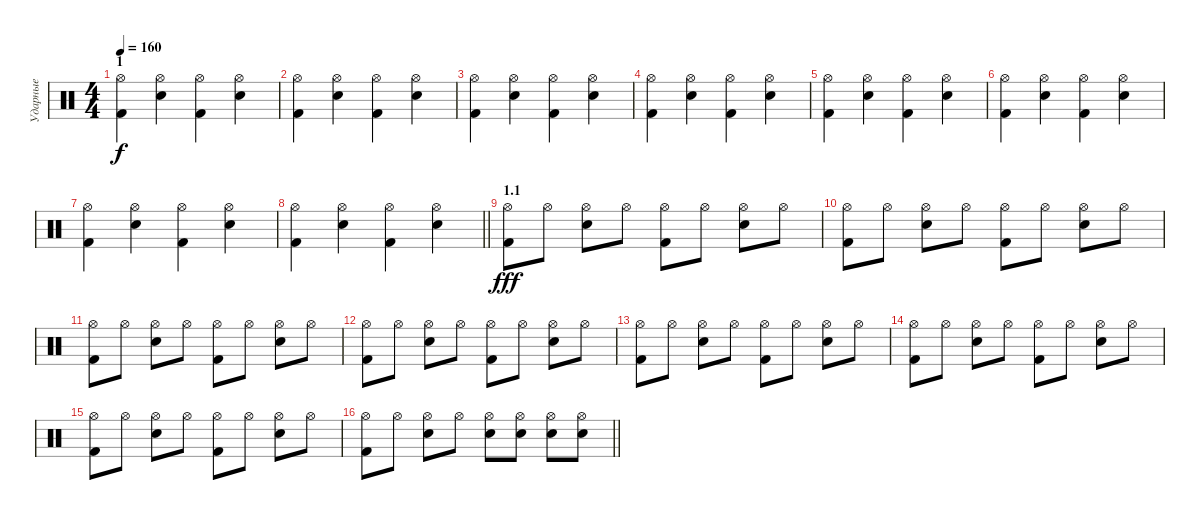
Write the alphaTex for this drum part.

\track ("Ударные" "Ударные") {instrument percussion}
\staff {score}
\articulation defaults
\ts (4 4)
\section ("" "1")
\tempo 160
\clef neutral
\ks c
("Hi-Hat (open)" "Kick (hit) 2").4{dy f} ("Hi-Hat (open)" "Electric Snare (hit)").4 ("Hi-Hat (open)" "Kick (hit) 2").4 ("Hi-Hat (open)" "Electric Snare (hit)").4 |
("Hi-Hat (open)" "Kick (hit) 2").4 ("Hi-Hat (open)" "Electric Snare (hit)").4 ("Hi-Hat (open)" "Kick (hit) 2").4 ("Hi-Hat (open)" "Electric Snare (hit)").4 |
("Hi-Hat (open)" "Kick (hit) 2").4 ("Hi-Hat (open)" "Electric Snare (hit)").4 ("Hi-Hat (open)" "Kick (hit) 2").4 ("Hi-Hat (open)" "Electric Snare (hit)").4 |
("Hi-Hat (open)" "Kick (hit) 2").4 ("Hi-Hat (open)" "Electric Snare (hit)").4 ("Hi-Hat (open)" "Kick (hit) 2").4 ("Hi-Hat (open)" "Electric Snare (hit)").4 |
("Hi-Hat (open)" "Kick (hit) 2").4 ("Hi-Hat (open)" "Electric Snare (hit)").4 ("Hi-Hat (open)" "Kick (hit) 2").4 ("Hi-Hat (open)" "Electric Snare (hit)").4 |
("Hi-Hat (open)" "Kick (hit) 2").4 ("Hi-Hat (open)" "Electric Snare (hit)").4 ("Hi-Hat (open)" "Kick (hit) 2").4 ("Hi-Hat (open)" "Electric Snare (hit)").4 |
("Hi-Hat (open)" "Kick (hit) 2").4 ("Hi-Hat (open)" "Electric Snare (hit)").4 ("Hi-Hat (open)" "Kick (hit) 2").4 ("Hi-Hat (open)" "Electric Snare (hit)").4 |
\barLineRight lightlight
("Hi-Hat (open)" "Kick (hit) 2").4 ("Hi-Hat (open)" "Electric Snare (hit)").4 ("Hi-Hat (open)" "Kick (hit) 2").4 ("Hi-Hat (open)" "Electric Snare (hit)").4 |
\section ("" "1.1")
("Hi-Hat (open)" "Kick (hit) 2").8{dy fff} "Hi-Hat (open)".8 ("Hi-Hat (open)" "Electric Snare (hit)").8 "Hi-Hat (open)".8 ("Hi-Hat (open)" "Kick (hit) 2").8 "Hi-Hat (open)".8 ("Hi-Hat (open)" "Electric Snare (hit)").8 "Hi-Hat (open)".8 |
("Hi-Hat (open)" "Kick (hit) 2").8 "Hi-Hat (open)".8 ("Hi-Hat (open)" "Electric Snare (hit)").8 "Hi-Hat (open)".8 ("Hi-Hat (open)" "Kick (hit) 2").8 "Hi-Hat (open)".8 ("Hi-Hat (open)" "Electric Snare (hit)").8 "Hi-Hat (open)".8 |
("Hi-Hat (open)" "Kick (hit) 2").8 "Hi-Hat (open)".8 ("Hi-Hat (open)" "Electric Snare (hit)").8 "Hi-Hat (open)".8 ("Hi-Hat (open)" "Kick (hit) 2").8 "Hi-Hat (open)".8 ("Hi-Hat (open)" "Electric Snare (hit)").8 "Hi-Hat (open)".8 |
("Hi-Hat (open)" "Kick (hit) 2").8 "Hi-Hat (open)".8 ("Hi-Hat (open)" "Electric Snare (hit)").8 "Hi-Hat (open)".8 ("Hi-Hat (open)" "Kick (hit) 2").8 "Hi-Hat (open)".8 ("Hi-Hat (open)" "Electric Snare (hit)").8 "Hi-Hat (open)".8 |
("Hi-Hat (open)" "Kick (hit) 2").8 "Hi-Hat (open)".8 ("Hi-Hat (open)" "Electric Snare (hit)").8 "Hi-Hat (open)".8 ("Hi-Hat (open)" "Kick (hit) 2").8 "Hi-Hat (open)".8 ("Hi-Hat (open)" "Electric Snare (hit)").8 "Hi-Hat (open)".8 |
("Hi-Hat (open)" "Kick (hit) 2").8 "Hi-Hat (open)".8 ("Hi-Hat (open)" "Electric Snare (hit)").8 "Hi-Hat (open)".8 ("Hi-Hat (open)" "Kick (hit) 2").8 "Hi-Hat (open)".8 ("Hi-Hat (open)" "Electric Snare (hit)").8 "Hi-Hat (open)".8 |
("Hi-Hat (open)" "Kick (hit) 2").8 "Hi-Hat (open)".8 ("Hi-Hat (open)" "Electric Snare (hit)").8 "Hi-Hat (open)".8 ("Hi-Hat (open)" "Kick (hit) 2").8 "Hi-Hat (open)".8 ("Hi-Hat (open)" "Electric Snare (hit)").8 "Hi-Hat (open)".8 |
\barLineRight lightlight
("Hi-Hat (open)" "Kick (hit) 2").8 "Hi-Hat (open)".8 ("Hi-Hat (open)" "Electric Snare (hit)").8 "Hi-Hat (open)".8 ("Hi-Hat (open)" "Electric Snare (hit)").8 ("Hi-Hat (open)" "Electric Snare (hit)").8 ("Hi-Hat (open)" "Electric Snare (hit)").8 ("Hi-Hat (open)" "Electric Snare (hit)").8
